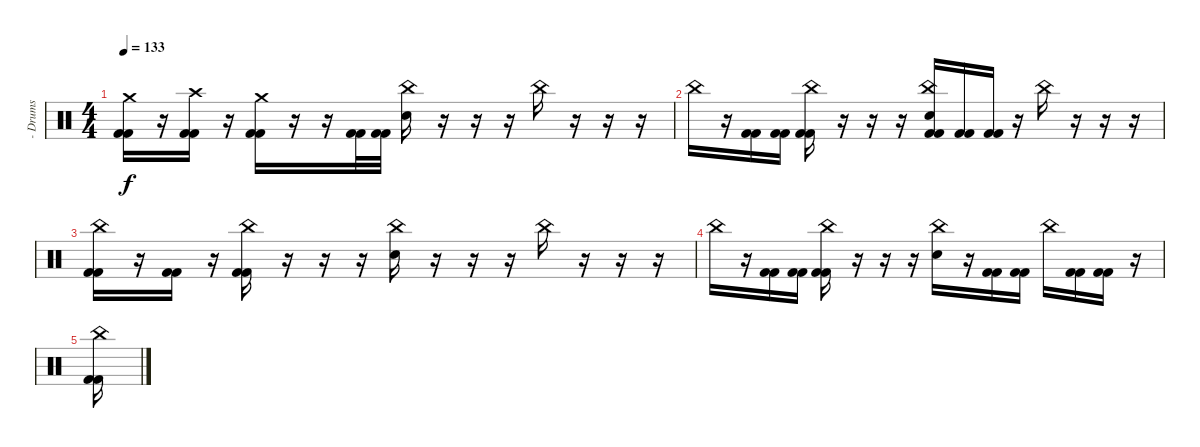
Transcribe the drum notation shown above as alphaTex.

\track (" - Drums" " - Drums") {instrument percussion}
\staff {score}
\articulation defaults
\ts (4 4)
\tempo 133
\clef neutral
\ks c
("Crash medium (hit)" "Kick (hit) 2" "Kick (hit) 2").16{dy f} r.16 ("Crash high (hit)" "Kick (hit) 2" "Kick (hit) 2").16 r.16 ("Crash medium (hit)" "Kick (hit) 2" "Kick (hit) 2").16 r.16 r.16 ("Kick (hit) 2" "Kick (hit) 2").32 ("Kick (hit) 2" "Kick (hit) 2").32 ("China (hit)" "Electric Snare (hit)").16 r.16 r.16 r.16 "China (hit)".16 r.16 r.16 r.16 |
"China (hit)".16 r.16 ("Kick (hit) 2" "Kick (hit) 2").16 ("Kick (hit) 2" "Kick (hit) 2").16 ("China (hit)" "Kick (hit) 2" "Kick (hit) 2").16 r.16 r.16 r.16 ("China (hit)" "Electric Snare (hit)" "Kick (hit) 2" "Kick (hit) 2").16 ("Kick (hit) 2" "Kick (hit) 2").16 ("Kick (hit) 2" "Kick (hit) 2").16 r.16 "China (hit)".16 r.16 r.16 r.16 |
("China (hit)" "Kick (hit) 2" "Kick (hit) 2").16 r.16 ("Kick (hit) 2" "Kick (hit) 2").16 r.16 ("China (hit)" "Kick (hit) 2" "Kick (hit) 2").16 r.16 r.16 r.16 ("China (hit)" "Electric Snare (hit)").16 r.16 r.16 r.16 "China (hit)".16 r.16 r.16 r.16 |
"China (hit)".16 r.16 ("Kick (hit) 2" "Kick (hit) 2").16 ("Kick (hit) 2" "Kick (hit) 2").16 ("China (hit)" "Kick (hit) 2" "Kick (hit) 2").16 r.16 r.16 r.16 ("China (hit)" "Electric Snare (hit)").16 r.16 ("Kick (hit) 2" "Kick (hit) 2").16 ("Kick (hit) 2" "Kick (hit) 2").16 "China (hit)".16 ("Kick (hit) 2" "Kick (hit) 2").16 ("Kick (hit) 2" "Kick (hit) 2").16 r.16 |
("China (hit)" "Kick (hit) 2" "Kick (hit) 2").16
